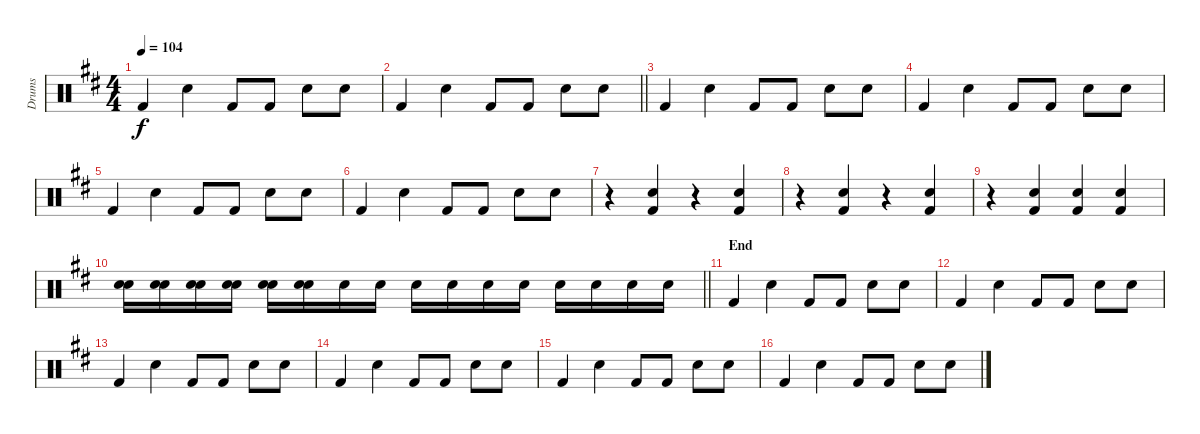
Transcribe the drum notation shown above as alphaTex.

\track ("Drums" "Drums") {instrument percussion}
\staff {score}
\articulation defaults
\ts (4 4)
\tempo 104
\clef neutral
\ks d "Kick (hit) 2".4{dy f} "Electric Snare (hit)".4 "Kick (hit) 2".8 "Kick (hit) 2".8 "Electric Snare (hit)".8 "Electric Snare (hit)".8
|
\barLineRight lightlight "Kick (hit) 2".4 "Electric Snare (hit)".4 "Kick (hit) 2".8 "Kick (hit) 2".8 "Electric Snare (hit)".8 "Electric Snare (hit)".8
|
"Kick (hit) 2".4 "Electric Snare (hit)".4 "Kick (hit) 2".8 "Kick (hit) 2".8 "Electric Snare (hit)".8 "Electric Snare (hit)".8 |
"Kick (hit) 2".4 "Electric Snare (hit)".4 "Kick (hit) 2".8 "Kick (hit) 2".8 "Electric Snare (hit)".8 "Electric Snare (hit)".8 |
"Kick (hit) 2".4 "Electric Snare (hit)".4 "Kick (hit) 2".8 "Kick (hit) 2".8 "Electric Snare (hit)".8 "Electric Snare (hit)".8 |
"Kick (hit) 2".4 "Electric Snare (hit)".4 "Kick (hit) 2".8 "Kick (hit) 2".8 "Electric Snare (hit)".8 "Electric Snare (hit)".8 |
r.4 ("Electric Snare (hit)" "Kick (hit) 2").4 r.4 ("Electric Snare (hit)" "Kick (hit) 2").4 |
r.4 ("Electric Snare (hit)" "Kick (hit) 2").4 r.4 ("Electric Snare (hit)" "Kick (hit) 2").4 |
r.4 ("Electric Snare (hit)" "Kick (hit) 2").4 ("Electric Snare (hit)" "Kick (hit) 2").4 ("Electric Snare (hit)" "Kick (hit) 2").4 |
\barLineRight lightlight
("Snare (hit)" "Electric Snare (hit)").16 ("Electric Snare (hit)" "Electric Snare (hit)").16 ("Snare (hit)" "Electric Snare (hit)").16 ("Snare (hit)" "Electric Snare (hit)").16 ("Electric Snare (hit)" "Electric Snare (hit)").16 ("Electric Snare (hit)" "Electric Snare (hit)").16 "Electric Snare (hit)".16 "Electric Snare (hit)".16 "Electric Snare (hit)".16 "Electric Snare (hit)".16 "Electric Snare (hit)".16 "Electric Snare (hit)".16 "Electric Snare (hit)".16 "Electric Snare (hit)".16 "Electric Snare (hit)".16 "Electric Snare (hit)".16 |
\section ("" "End")
"Kick (hit) 2".4 "Electric Snare (hit)".4 "Kick (hit) 2".8 "Kick (hit) 2".8 "Electric Snare (hit)".8 "Electric Snare (hit)".8 |
"Kick (hit) 2".4 "Electric Snare (hit)".4 "Kick (hit) 2".8 "Kick (hit) 2".8 "Electric Snare (hit)".8 "Electric Snare (hit)".8 |
"Kick (hit) 2".4 "Electric Snare (hit)".4 "Kick (hit) 2".8 "Kick (hit) 2".8 "Electric Snare (hit)".8 "Electric Snare (hit)".8 |
"Kick (hit) 2".4 "Electric Snare (hit)".4 "Kick (hit) 2".8 "Kick (hit) 2".8 "Electric Snare (hit)".8 "Electric Snare (hit)".8 |
"Kick (hit) 2".4 "Electric Snare (hit)".4 "Kick (hit) 2".8 "Kick (hit) 2".8 "Electric Snare (hit)".8 "Electric Snare (hit)".8 |
"Kick (hit) 2".4 "Electric Snare (hit)".4 "Kick (hit) 2".8 "Kick (hit) 2".8 "Electric Snare (hit)".8 "Electric Snare (hit)".8
